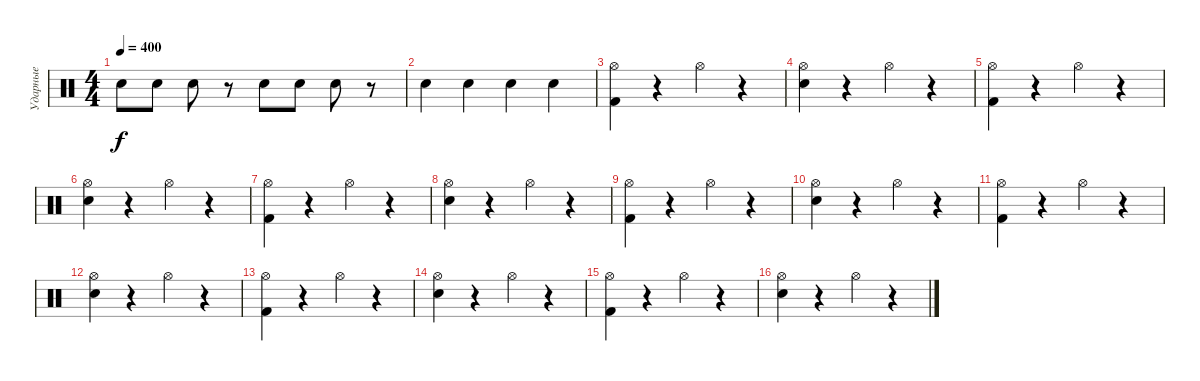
\track ("Ударные" "Ударные") {instrument percussion}
\staff {score}
\articulation defaults
\ts (4 4)
\tempo 400
\clef neutral
\ks c "Snare (hit) 2".8{dy f} "Snare (hit) 2".8 "Snare (hit) 2".8
r.8 "Snare (hit) 2".8 "Snare (hit) 2".8 "Snare (hit) 2".8 r.8 |
"Electric Snare (hit)".4 "Electric Snare (hit)".4 "Electric Snare (hit)".4 "Electric Snare (hit)".4 |
("Kick (hit) 2" "Hi-Hat (open)").4 r.4 "Hi-Hat (open)".4 r.4 |
("Electric Snare (hit)" "Hi-Hat (open)").4 r.4 "Hi-Hat (open)".4 r.4 |
("Kick (hit) 2" "Hi-Hat (open)").4 r.4 "Hi-Hat (open)".4 r.4 |
("Electric Snare (hit)" "Hi-Hat (open)").4 r.4 "Hi-Hat (open)".4 r.4 |
("Kick (hit) 2" "Hi-Hat (open)").4 r.4 "Hi-Hat (open)".4 r.4 |
("Electric Snare (hit)" "Hi-Hat (open)").4 r.4 "Hi-Hat (open)".4 r.4 |
("Kick (hit) 2" "Hi-Hat (open)").4 r.4 "Hi-Hat (open)".4 r.4 |
("Electric Snare (hit)" "Hi-Hat (open)").4 r.4 "Hi-Hat (open)".4 r.4 |
("Kick (hit) 2" "Hi-Hat (open)").4 r.4 "Hi-Hat (open)".4 r.4 |
("Electric Snare (hit)" "Hi-Hat (open)").4 r.4 "Hi-Hat (open)".4 r.4 |
("Kick (hit) 2" "Hi-Hat (open)").4 r.4 "Hi-Hat (open)".4 r.4 |
("Electric Snare (hit)" "Hi-Hat (open)").4 r.4 "Hi-Hat (open)".4 r.4 |
("Kick (hit) 2" "Hi-Hat (open)").4 r.4 "Hi-Hat (open)".4 r.4 |
("Electric Snare (hit)" "Hi-Hat (open)").4 r.4 "Hi-Hat (open)".4 r.4
